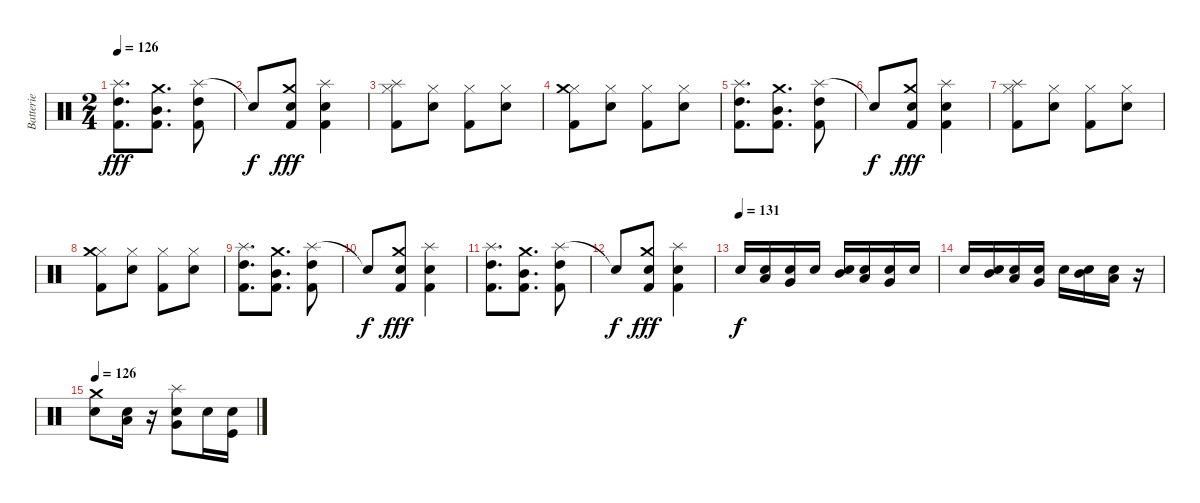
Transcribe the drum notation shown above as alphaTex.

\track ("Batterie" "Batterie") {instrument percussion}
\staff {score}
\articulation defaults
\ts (2 4)
\tempo 126
\clef neutral
\ks c
("Splash (hit)" "High Tom (hit)" "Kick (hit) 2").8{d dy fff} ("Crash medium (hit)" "Mid Tom (hit)" "Kick (hit) 2").8{d} ("Splash (hit)" "High Tom (hit)" "Kick (hit) 2").8 |
"Snare (hit)"{t}.8{dy f} ("Crash medium (hit)" "Kick (hit) 2" "Electric Snare (hit)").8{dy fff} ("Splash (hit)" "Kick (hit) 2" "Electric Snare (hit)").4 |
("Hi-Hat (closed)" "Kick (hit) 2" "Splash (hit)").8 ("Hi-Hat (closed)" "Electric Snare (hit)").8 ("Hi-Hat (closed)" "Kick (hit) 2").8 ("Hi-Hat (closed)" "Electric Snare (hit)").8 |
("Kick (hit) 2" "Hi-Hat (closed)" "Crash medium (hit)").8 ("Electric Snare (hit)" "Hi-Hat (closed)").8 ("Kick (hit) 2" "Hi-Hat (closed)").8 ("Electric Snare (hit)" "Hi-Hat (closed)").8 |
("Splash (hit)" "High Tom (hit)" "Kick (hit) 2").8{d} ("Crash medium (hit)" "Mid Tom (hit)" "Kick (hit) 2").8{d} ("Splash (hit)" "High Tom (hit)" "Kick (hit) 2").8 |
"Snare (hit)"{t}.8{dy f} ("Crash medium (hit)" "Kick (hit) 2" "Electric Snare (hit)").8{dy fff} ("Splash (hit)" "Kick (hit) 2" "Electric Snare (hit)").4 |
("Hi-Hat (closed)" "Kick (hit) 2" "Splash (hit)").8 ("Hi-Hat (closed)" "Electric Snare (hit)").8 ("Hi-Hat (closed)" "Kick (hit) 2").8 ("Hi-Hat (closed)" "Electric Snare (hit)").8 |
("Kick (hit) 2" "Hi-Hat (closed)" "Crash medium (hit)").8 ("Electric Snare (hit)" "Hi-Hat (closed)").8 ("Kick (hit) 2" "Hi-Hat (closed)").8 ("Electric Snare (hit)" "Hi-Hat (closed)").8 |
("Splash (hit)" "High Tom (hit)" "Kick (hit) 2").8{d} ("Crash medium (hit)" "Mid Tom (hit)" "Kick (hit) 2").8{d} ("Splash (hit)" "High Tom (hit)" "Kick (hit) 2").8 |
"Snare (hit)"{t}.8{dy f} ("Crash medium (hit)" "Kick (hit) 2" "Electric Snare (hit)").8{dy fff} ("Splash (hit)" "Kick (hit) 2" "Electric Snare (hit)").4 |
("Splash (hit)" "High Tom (hit)" "Kick (hit) 2").8{d} ("Crash medium (hit)" "Mid Tom (hit)" "Kick (hit) 2").8{d} ("Splash (hit)" "High Tom (hit)" "Kick (hit) 2").8 |
"Snare (hit)"{t}.8{dy f} ("Crash medium (hit)" "Kick (hit) 2" "Electric Snare (hit)").8{dy fff} ("Splash (hit)" "Kick (hit) 2" "Electric Snare (hit)").4 |
\tempo (131)
"Electric Snare (hit)".16{dy f} ("Electric Snare (hit)" "Low Tom (hit)").16 ("Electric Snare (hit)" "Very Low Tom (hit)").16 "Electric Snare (hit)".16 ("Mid Tom (hit)" "Electric Snare (hit)").16 ("Low Tom (hit)" "Electric Snare (hit)").16 ("Electric Snare (hit)" "Very Low Tom (hit)").16 "Electric Snare (hit)".16 |
"Electric Snare (hit)".16 ("Mid Tom (hit)" "Electric Snare (hit)").16 ("Low Tom (hit)" "Electric Snare (hit)").16 ("Very Low Tom (hit)" "Electric Snare (hit)").16 "Electric Snare (hit)".16 ("Mid Tom (hit)" "Electric Snare (hit)").16 ("Low Tom (hit)" "Electric Snare (hit)").16 r.16 |
\tempo 126
("Electric Snare (hit)" "Crash medium (hit)").8 ("Low Tom (hit)" "Electric Snare (hit)").16 r.16 ("Very Low Tom (hit)" "Electric Snare (hit)" "Splash (hit)").8 "Electric Snare (hit)".16 ("Electric Snare (hit)" "Kick (hit)").16
